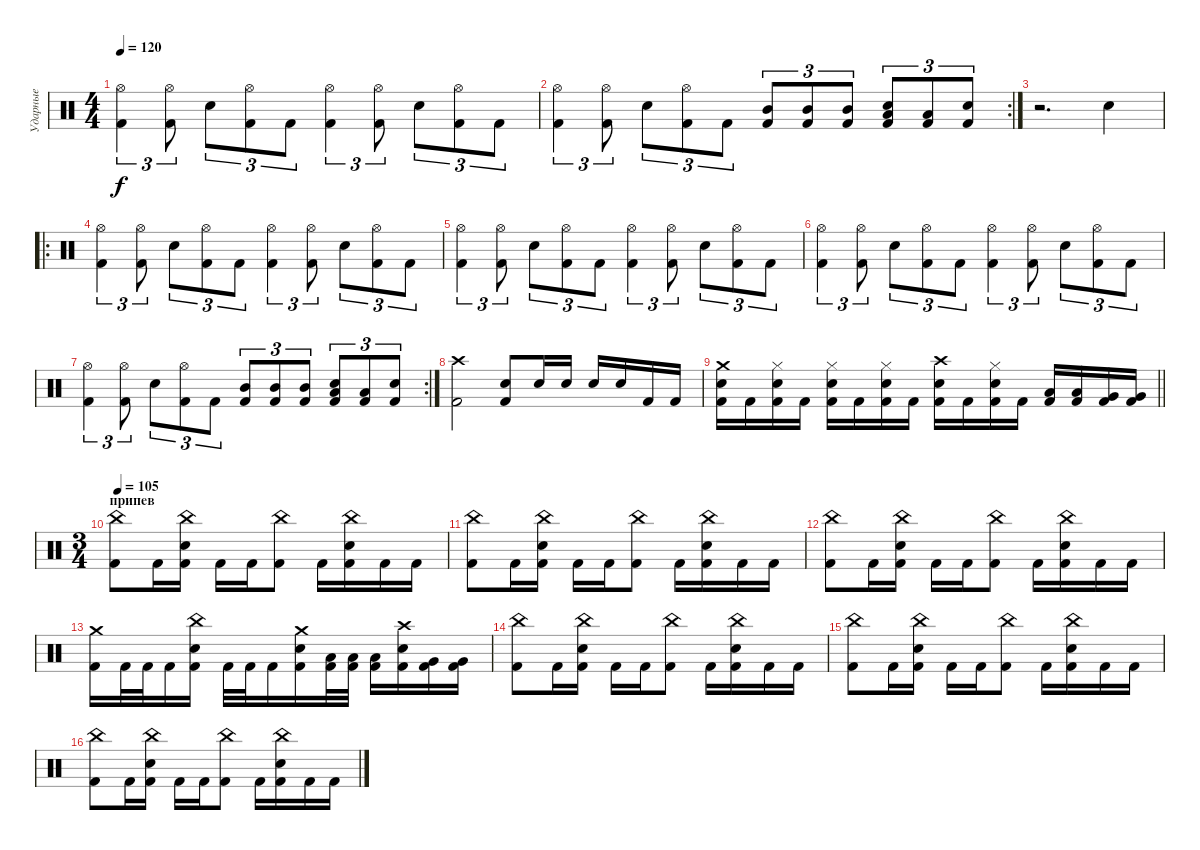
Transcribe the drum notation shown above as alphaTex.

\track ("Ударные" "Ударные") {instrument percussion}
\staff {score}
\articulation defaults
\ts (4 4)
\tempo 120
\clef neutral
\ks c
("Hi-Hat (open)" "Kick (hit) 2").4{tu (3 2) dy f} ("Hi-Hat (open)" "Kick (hit) 2").8{tu (3 2)} "Snare (hit) 2".8{tu (3 2)} ("Hi-Hat (open)" "Kick (hit) 2").8{tu (3 2)} "Kick (hit) 2".8{tu (3 2)} ("Hi-Hat (open)" "Kick (hit) 2").4{tu (3 2)} ("Hi-Hat (open)" "Kick (hit) 2").8{tu (3 2)} "Snare (hit) 2".8{tu (3 2)} ("Hi-Hat (open)" "Kick (hit) 2").8{tu (3 2)} "Kick (hit) 2".8{tu (3 2)} |
\rc 2
("Hi-Hat (open)" "Kick (hit) 2").4{tu (3 2)} ("Hi-Hat (open)" "Kick (hit) 2").8{tu (3 2)} "Snare (hit) 2".8{tu (3 2)} ("Hi-Hat (open)" "Kick (hit) 2").8{tu (3 2)} "Kick (hit) 2".8{tu (3 2)} ("Mid Tom (hit)" "Kick (hit) 2").8{tu (3 2)} ("Mid Tom (hit)" "Kick (hit) 2").8{tu (3 2)} ("Mid Tom (hit)" "Kick (hit) 2").8{tu (3 2)} ("Low Tom (hit)" "Snare (hit) 2" "Kick (hit) 2").8{tu (3 2)} ("Low Tom (hit)" "Kick (hit) 2").8{tu (3 2)} ("Snare (hit) 2" "Kick (hit) 2").8{tu (3 2)} |
r.2{d} "Snare (hit) 2".4 |
\ro
("Hi-Hat (open)" "Kick (hit) 2").4{tu (3 2)} ("Hi-Hat (open)" "Kick (hit) 2").8{tu (3 2)} "Snare (hit) 2".8{tu (3 2)} ("Hi-Hat (open)" "Kick (hit) 2").8{tu (3 2)} "Kick (hit) 2".8{tu (3 2)} ("Hi-Hat (open)" "Kick (hit) 2").4{tu (3 2)} ("Hi-Hat (open)" "Kick (hit) 2").8{tu (3 2)} "Snare (hit) 2".8{tu (3 2)} ("Hi-Hat (open)" "Kick (hit) 2").8{tu (3 2)} "Kick (hit) 2".8{tu (3 2)} |
("Hi-Hat (open)" "Kick (hit) 2").4{tu (3 2)} ("Hi-Hat (open)" "Kick (hit) 2").8{tu (3 2)} "Snare (hit) 2".8{tu (3 2)} ("Hi-Hat (open)" "Kick (hit) 2").8{tu (3 2)} "Kick (hit) 2".8{tu (3 2)} ("Hi-Hat (open)" "Kick (hit) 2").4{tu (3 2)} ("Hi-Hat (open)" "Kick (hit) 2").8{tu (3 2)} "Snare (hit) 2".8{tu (3 2)} ("Hi-Hat (open)" "Kick (hit) 2").8{tu (3 2)} "Kick (hit) 2".8{tu (3 2)} |
("Hi-Hat (open)" "Kick (hit) 2").4{tu (3 2)} ("Hi-Hat (open)" "Kick (hit) 2").8{tu (3 2)} "Snare (hit) 2".8{tu (3 2)} ("Hi-Hat (open)" "Kick (hit) 2").8{tu (3 2)} "Kick (hit) 2".8{tu (3 2)} ("Hi-Hat (open)" "Kick (hit) 2").4{tu (3 2)} ("Hi-Hat (open)" "Kick (hit) 2").8{tu (3 2)} "Snare (hit) 2".8{tu (3 2)} ("Hi-Hat (open)" "Kick (hit) 2").8{tu (3 2)} "Kick (hit) 2".8{tu (3 2)} |
\rc 2
("Hi-Hat (open)" "Kick (hit) 2").4{tu (3 2)} ("Hi-Hat (open)" "Kick (hit) 2").8{tu (3 2)} "Snare (hit) 2".8{tu (3 2)} ("Hi-Hat (open)" "Kick (hit) 2").8{tu (3 2)} "Kick (hit) 2".8{tu (3 2)} ("Mid Tom (hit)" "Kick (hit) 2").8{tu (3 2)} ("Mid Tom (hit)" "Kick (hit) 2").8{tu (3 2)} ("Mid Tom (hit)" "Kick (hit) 2").8{tu (3 2)} ("Low Tom (hit)" "Snare (hit) 2" "Kick (hit) 2").8{tu (3 2)} ("Low Tom (hit)" "Kick (hit) 2").8{tu (3 2)} ("Snare (hit) 2" "Kick (hit) 2").8{tu (3 2)} |
("Crash high (hit)" "Kick (hit) 2").2 ("Snare (hit) 2" "Kick (hit) 2").8 "Snare (hit) 2".16 "Snare (hit) 2".16 "Snare (hit) 2".16 "Snare (hit) 2".16 "Kick (hit) 2".16 "Kick (hit) 2".16 |
\barLineRight lightlight
("Snare (hit) 2" "Crash medium (hit)" "Kick (hit) 2").16 "Kick (hit) 2".16 ("Snare (hit) 2" "Hi-Hat (closed)" "Kick (hit) 2").16 "Kick (hit) 2".16 ("Snare (hit) 2" "Hi-Hat (closed)" "Kick (hit) 2").16 "Kick (hit) 2".16 ("Snare (hit) 2" "Hi-Hat (closed)" "Kick (hit) 2").16 "Kick (hit) 2".16 ("Snare (hit) 2" "Crash high (hit)" "Kick (hit) 2").16 "Kick (hit) 2".16 ("Snare (hit) 2" "Hi-Hat (closed)" "Kick (hit) 2").16 "Kick (hit) 2".16 ("Low Tom (hit)" "Kick (hit) 2").16 ("Low Tom (hit)" "Kick (hit) 2").16 ("Very Low Tom (hit)" "Kick (hit) 2").16 ("Very Low Tom (hit)" "Kick (hit) 2").16 |
\ts (3 4)
\section ("" "припев")
\tempo 105
("Kick (hit) 2" "China (hit)").8 "Kick (hit) 2".16 ("Kick (hit) 2" "Snare (hit) 2" "China (hit)").16 "Kick (hit) 2".16 "Kick (hit) 2".16 ("Kick (hit) 2" "China (hit)").8 "Kick (hit) 2".16 ("Kick (hit) 2" "Snare (hit) 2" "China (hit)").16 "Kick (hit) 2".16 "Kick (hit) 2".16 |
("Kick (hit) 2" "China (hit)").8 "Kick (hit) 2".16 ("Kick (hit) 2" "Snare (hit) 2" "China (hit)").16 "Kick (hit) 2".16 "Kick (hit) 2".16 ("Kick (hit) 2" "China (hit)").8 "Kick (hit) 2".16 ("Kick (hit) 2" "Snare (hit) 2" "China (hit)").16 "Kick (hit) 2".16 "Kick (hit) 2".16 |
("Kick (hit) 2" "China (hit)").8 "Kick (hit) 2".16 ("Kick (hit) 2" "Snare (hit) 2" "China (hit)").16 "Kick (hit) 2".16 "Kick (hit) 2".16 ("Kick (hit) 2" "China (hit)").8 "Kick (hit) 2".16 ("Kick (hit) 2" "Snare (hit) 2" "China (hit)").16 "Kick (hit) 2".16 "Kick (hit) 2".16 |
("Kick (hit) 2" "Crash medium (hit)").16 "Kick (hit) 2".32 "Kick (hit) 2".32 "Kick (hit) 2".16 ("Kick (hit) 2" "Snare (hit) 2" "China (hit)").16 "Kick (hit) 2".32 "Kick (hit) 2".32 "Kick (hit) 2".16 ("Kick (hit) 2" "Snare (hit) 2" "Crash medium (hit)").16 ("Kick (hit) 2" "Low Tom (hit)").32 ("Kick (hit) 2" "Low Tom (hit)").32 ("Kick (hit) 2" "Low Tom (hit)").16 ("Kick (hit) 2" "Snare (hit) 2" "Crash high (hit)").16 ("Kick (hit) 2" "Very Low Tom (hit)").16 ("Kick (hit) 2" "Very Low Tom (hit)").16 |
("Kick (hit) 2" "China (hit)").8 "Kick (hit) 2".16 ("Kick (hit) 2" "Snare (hit) 2" "China (hit)").16 "Kick (hit) 2".16 "Kick (hit) 2".16 ("Kick (hit) 2" "China (hit)").8 "Kick (hit) 2".16 ("Kick (hit) 2" "Snare (hit) 2" "China (hit)").16 "Kick (hit) 2".16 "Kick (hit) 2".16 |
("Kick (hit) 2" "China (hit)").8 "Kick (hit) 2".16 ("Kick (hit) 2" "Snare (hit) 2" "China (hit)").16 "Kick (hit) 2".16 "Kick (hit) 2".16 ("Kick (hit) 2" "China (hit)").8 "Kick (hit) 2".16 ("Kick (hit) 2" "Snare (hit) 2" "China (hit)").16 "Kick (hit) 2".16 "Kick (hit) 2".16 |
("Kick (hit) 2" "China (hit)").8 "Kick (hit) 2".16 ("Kick (hit) 2" "Snare (hit) 2" "China (hit)").16 "Kick (hit) 2".16 "Kick (hit) 2".16 ("Kick (hit) 2" "China (hit)").8 "Kick (hit) 2".16 ("Kick (hit) 2" "Snare (hit) 2" "China (hit)").16 "Kick (hit) 2".16 "Kick (hit) 2".16
